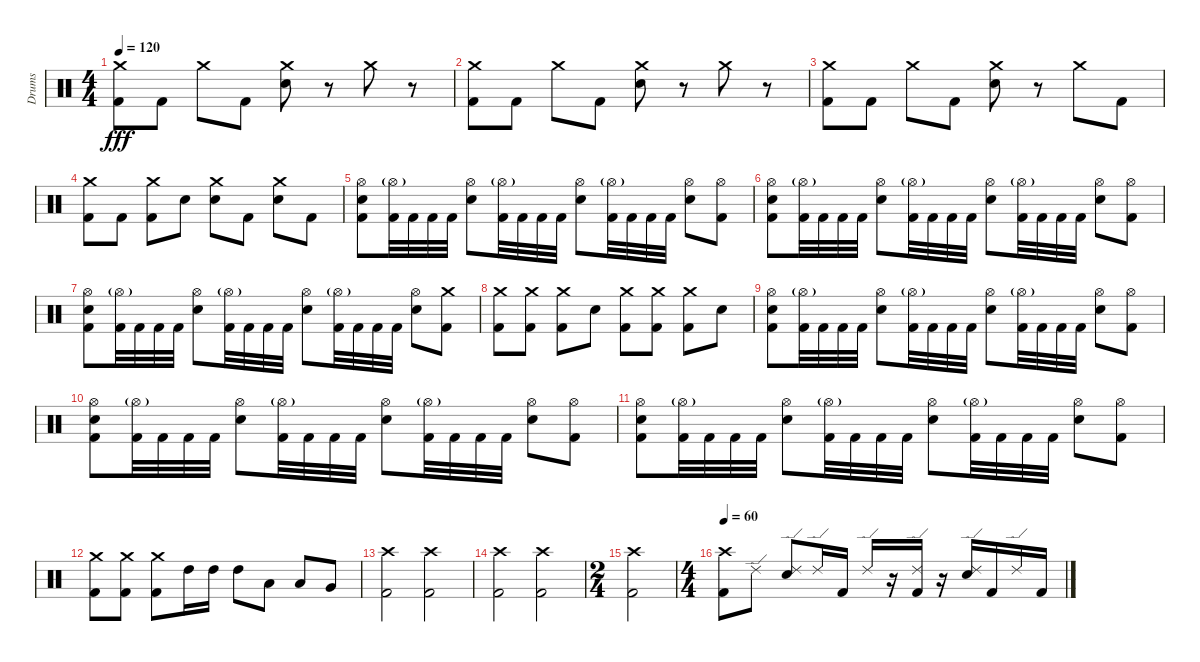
\track ("Drums" "Drums") {instrument percussion}
\staff {score}
\articulation defaults
\ts (4 4)
\tempo 120
\clef neutral
\ks c
("Crash medium (hit)" "Kick (hit) 2").8{dy fff} "Kick (hit) 2".8 "Crash medium (hit)".8 "Kick (hit) 2".8 ("Crash medium (hit)" "Electric Snare (hit)").8 r.8 "Crash medium (hit)".8 r.8 |
("Crash medium (hit)" "Kick (hit) 2").8 "Kick (hit) 2".8 "Crash medium (hit)".8 "Kick (hit) 2".8 ("Crash medium (hit)" "Electric Snare (hit)").8 r.8 "Crash medium (hit)".8 r.8 |
("Crash medium (hit)" "Kick (hit) 2").8 "Kick (hit) 2".8 "Crash medium (hit)".8 "Kick (hit) 2".8 ("Crash medium (hit)" "Electric Snare (hit)").8 r.8 "Crash medium (hit)".8 "Kick (hit) 2".8 |
("Crash medium (hit)" "Kick (hit) 2").8 "Kick (hit) 2".8 ("Crash medium (hit)" "Kick (hit) 2").8 "Electric Snare (hit)".8 ("Crash medium (hit)" "Electric Snare (hit)").8 "Kick (hit) 2".8 ("Crash medium (hit)" "Electric Snare (hit)").8 "Kick (hit) 2".8 |
("Hi-Hat (open)" "Electric Snare (hit)" "Kick (hit) 2").8 ("Hi-Hat (open)"{g} "Kick (hit) 2").32 "Kick (hit) 2".32 "Kick (hit) 2".32 "Kick (hit) 2".32 ("Hi-Hat (open)" "Electric Snare (hit)").8 ("Hi-Hat (open)"{g} "Kick (hit) 2").32 "Kick (hit) 2".32 "Kick (hit) 2".32 "Kick (hit) 2".32 ("Hi-Hat (open)" "Electric Snare (hit)").8 ("Hi-Hat (open)"{g} "Kick (hit) 2").32 "Kick (hit) 2".32 "Kick (hit) 2".32 "Kick (hit) 2".32 ("Hi-Hat (open)" "Electric Snare (hit)").8 ("Hi-Hat (open)" "Kick (hit) 2").8 |
("Hi-Hat (open)" "Electric Snare (hit)" "Kick (hit) 2").8 ("Hi-Hat (open)"{g} "Kick (hit) 2").32 "Kick (hit) 2".32 "Kick (hit) 2".32 "Kick (hit) 2".32 ("Hi-Hat (open)" "Electric Snare (hit)").8 ("Hi-Hat (open)"{g} "Kick (hit) 2").32 "Kick (hit) 2".32 "Kick (hit) 2".32 "Kick (hit) 2".32 ("Hi-Hat (open)" "Electric Snare (hit)").8 ("Hi-Hat (open)"{g} "Kick (hit) 2").32 "Kick (hit) 2".32 "Kick (hit) 2".32 "Kick (hit) 2".32 ("Hi-Hat (open)" "Electric Snare (hit)").8 ("Hi-Hat (open)" "Kick (hit) 2").8 |
("Hi-Hat (open)" "Electric Snare (hit)" "Kick (hit) 2").8 ("Hi-Hat (open)"{g} "Kick (hit) 2").32 "Kick (hit) 2".32 "Kick (hit) 2".32 "Kick (hit) 2".32 ("Hi-Hat (open)" "Electric Snare (hit)").8 ("Hi-Hat (open)"{g} "Kick (hit) 2").32 "Kick (hit) 2".32 "Kick (hit) 2".32 "Kick (hit) 2".32 ("Hi-Hat (open)" "Electric Snare (hit)").8 ("Hi-Hat (open)"{g} "Kick (hit) 2").32 "Kick (hit) 2".32 "Kick (hit) 2".32 "Kick (hit) 2".32 ("Hi-Hat (open)" "Electric Snare (hit)").8 ("Crash medium (hit)" "Kick (hit) 2").8 |
("Crash medium (hit)" "Kick (hit) 2").8 ("Crash medium (hit)" "Kick (hit) 2").8 ("Crash medium (hit)" "Kick (hit) 2").8 "Electric Snare (hit)".8 ("Crash medium (hit)" "Kick (hit) 2").8 ("Crash medium (hit)" "Kick (hit) 2").8 ("Crash medium (hit)" "Kick (hit) 2").8 "Electric Snare (hit)".8 |
("Hi-Hat (open)" "Electric Snare (hit)" "Kick (hit) 2").8 ("Hi-Hat (open)"{g} "Kick (hit) 2").32 "Kick (hit) 2".32 "Kick (hit) 2".32 "Kick (hit) 2".32 ("Hi-Hat (open)" "Electric Snare (hit)").8 ("Hi-Hat (open)"{g} "Kick (hit) 2").32 "Kick (hit) 2".32 "Kick (hit) 2".32 "Kick (hit) 2".32 ("Hi-Hat (open)" "Electric Snare (hit)").8 ("Hi-Hat (open)"{g} "Kick (hit) 2").32 "Kick (hit) 2".32 "Kick (hit) 2".32 "Kick (hit) 2".32 ("Hi-Hat (open)" "Electric Snare (hit)").8 ("Hi-Hat (open)" "Kick (hit) 2").8 |
("Hi-Hat (open)" "Electric Snare (hit)" "Kick (hit) 2").8 ("Hi-Hat (open)"{g} "Kick (hit) 2").32 "Kick (hit) 2".32 "Kick (hit) 2".32 "Kick (hit) 2".32 ("Hi-Hat (open)" "Electric Snare (hit)").8 ("Hi-Hat (open)"{g} "Kick (hit) 2").32 "Kick (hit) 2".32 "Kick (hit) 2".32 "Kick (hit) 2".32 ("Hi-Hat (open)" "Electric Snare (hit)").8 ("Hi-Hat (open)"{g} "Kick (hit) 2").32 "Kick (hit) 2".32 "Kick (hit) 2".32 "Kick (hit) 2".32 ("Hi-Hat (open)" "Electric Snare (hit)").8 ("Hi-Hat (open)" "Kick (hit) 2").8 |
("Hi-Hat (open)" "Electric Snare (hit)" "Kick (hit) 2").8 ("Hi-Hat (open)"{g} "Kick (hit) 2").32 "Kick (hit) 2".32 "Kick (hit) 2".32 "Kick (hit) 2".32 ("Hi-Hat (open)" "Electric Snare (hit)").8 ("Hi-Hat (open)"{g} "Kick (hit) 2").32 "Kick (hit) 2".32 "Kick (hit) 2".32 "Kick (hit) 2".32 ("Hi-Hat (open)" "Electric Snare (hit)").8 ("Hi-Hat (open)"{g} "Kick (hit) 2").32 "Kick (hit) 2".32 "Kick (hit) 2".32 "Kick (hit) 2".32 ("Hi-Hat (open)" "Electric Snare (hit)").8 ("Hi-Hat (open)" "Kick (hit) 2").8 |
("Crash medium (hit)" "Kick (hit) 2").8 ("Crash medium (hit)" "Kick (hit) 2").8 ("Crash medium (hit)" "Kick (hit) 2").8 "High Tom (hit)".16 "High Tom (hit)".16 "High Tom (hit)".8 "Low Tom (hit)".8 "Low Tom (hit)".8 "Very Low Tom (hit)".8 |
("Crash high (hit)" "Kick (hit) 2").2 ("Crash high (hit)" "Kick (hit) 2").2 |
("Crash high (hit)" "Kick (hit) 2").2 ("Crash high (hit)" "Kick (hit) 2").2 |
\ts (2 4)
("Crash high (hit)" "Kick (hit) 2").2 |
\ts (4 4)
\tempo 60
("Crash high (hit)" "Kick (hit) 2").8 "Ride (edge) 2".8 ("Ride (edge) 2" "Electric Snare (hit)").8 "Ride (edge) 2".16 "Kick (hit) 2".16 "Ride (edge) 2".16 r.16 ("Ride (edge) 2" "Kick (hit) 2").16 r.16 ("Ride (edge) 2" "Electric Snare (hit)").16 "Kick (hit) 2".16 "Ride (edge) 2".16 "Kick (hit) 2".16
